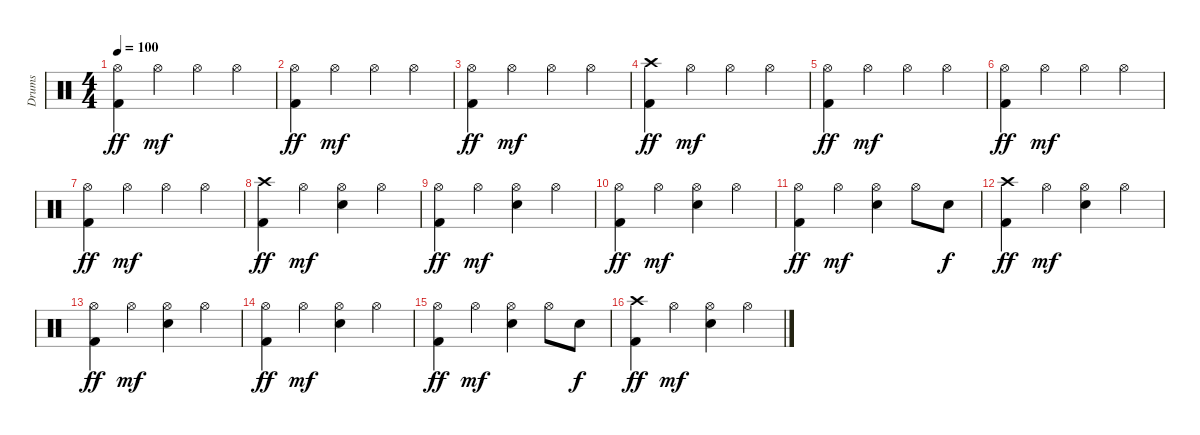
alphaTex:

\track ("Drums" "Drums") {instrument percussion}
\staff {score}
\articulation defaults
\ts (4 4)
\tempo 100
\clef neutral
\ks c
("Hi-Hat (open)" "Kick (hit) 2").4{dy ff} "Hi-Hat (open)".4{dy mf} "Hi-Hat (open)".4 "Hi-Hat (open)".4 |
("Hi-Hat (open)" "Kick (hit) 2").4{dy ff} "Hi-Hat (open)".4{dy mf} "Hi-Hat (open)".4 "Hi-Hat (open)".4 |
("Hi-Hat (open)" "Kick (hit) 2").4{dy ff} "Hi-Hat (open)".4{dy mf} "Hi-Hat (open)".4 "Hi-Hat (open)".4 |
("Crash high (hit)" "Kick (hit) 2").4{dy ff} "Hi-Hat (open)".4{dy mf} "Hi-Hat (open)".4 "Hi-Hat (open)".4 |
("Hi-Hat (open)" "Kick (hit) 2").4{dy ff} "Hi-Hat (open)".4{dy mf} "Hi-Hat (open)".4 "Hi-Hat (open)".4 |
("Hi-Hat (open)" "Kick (hit) 2").4{dy ff} "Hi-Hat (open)".4{dy mf} "Hi-Hat (open)".4 "Hi-Hat (open)".4 |
("Hi-Hat (open)" "Kick (hit) 2").4{dy ff} "Hi-Hat (open)".4{dy mf} "Hi-Hat (open)".4 "Hi-Hat (open)".4 |
("Crash high (hit)" "Kick (hit) 2").4{dy ff} "Hi-Hat (open)".4{dy mf} ("Hi-Hat (open)" "Electric Snare (hit)").4 "Hi-Hat (open)".4 |
("Hi-Hat (open)" "Kick (hit) 2").4{dy ff} "Hi-Hat (open)".4{dy mf} ("Hi-Hat (open)" "Electric Snare (hit)").4 "Hi-Hat (open)".4 |
("Hi-Hat (open)" "Kick (hit) 2").4{dy ff} "Hi-Hat (open)".4{dy mf} ("Hi-Hat (open)" "Electric Snare (hit)").4 "Hi-Hat (open)".4 |
("Hi-Hat (open)" "Kick (hit) 2").4{dy ff} "Hi-Hat (open)".4{dy mf} ("Hi-Hat (open)" "Electric Snare (hit)").4 "Hi-Hat (open)".8 "Electric Snare (hit)".8{dy f} |
("Crash high (hit)" "Kick (hit) 2").4{dy ff} "Hi-Hat (open)".4{dy mf} ("Hi-Hat (open)" "Electric Snare (hit)").4 "Hi-Hat (open)".4 |
("Hi-Hat (open)" "Kick (hit) 2").4{dy ff} "Hi-Hat (open)".4{dy mf} ("Hi-Hat (open)" "Electric Snare (hit)").4 "Hi-Hat (open)".4 |
("Hi-Hat (open)" "Kick (hit) 2").4{dy ff} "Hi-Hat (open)".4{dy mf} ("Hi-Hat (open)" "Electric Snare (hit)").4 "Hi-Hat (open)".4 |
("Hi-Hat (open)" "Kick (hit) 2").4{dy ff} "Hi-Hat (open)".4{dy mf} ("Hi-Hat (open)" "Electric Snare (hit)").4 "Hi-Hat (open)".8 "Electric Snare (hit)".8{dy f} |
("Crash high (hit)" "Kick (hit) 2").4{dy ff} "Hi-Hat (open)".4{dy mf} ("Hi-Hat (open)" "Electric Snare (hit)").4 "Hi-Hat (open)".4
